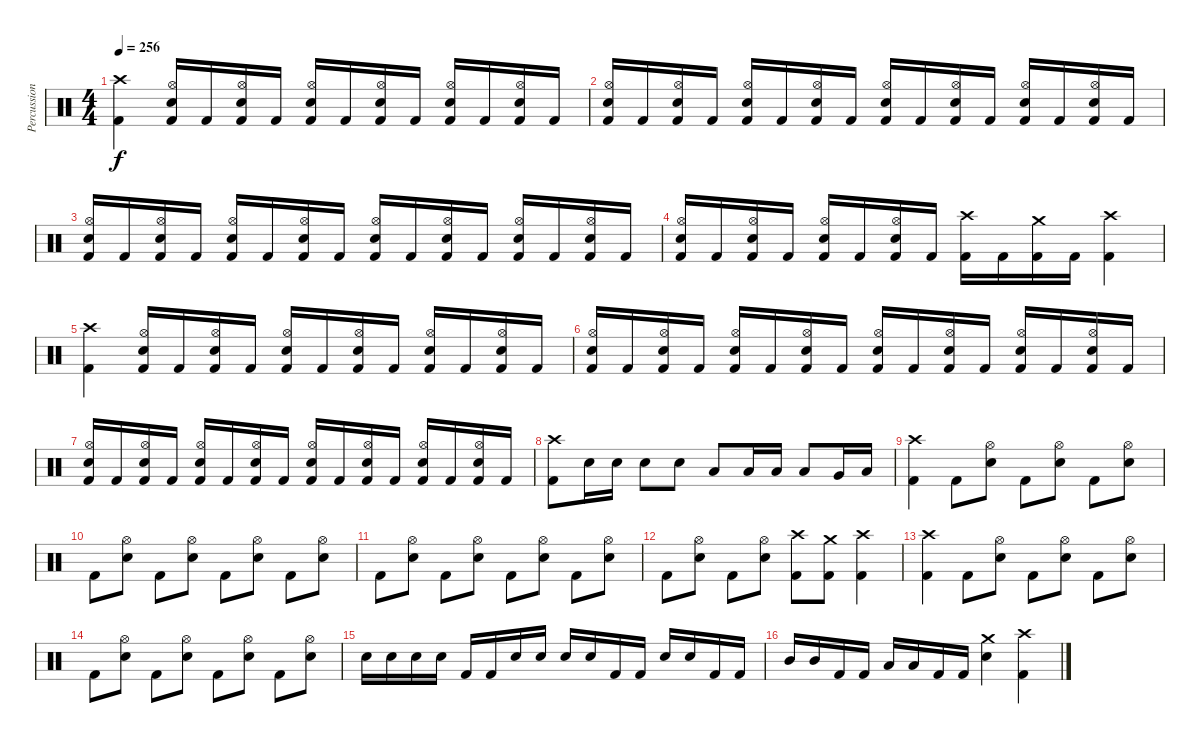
\track ("Percussion" "Percussion") {instrument percussion}
\staff {score}
\articulation defaults
\ts (4 4)
\tempo 256
\clef neutral
\ks c
("Crash high (hit)" "Kick (hit) 2").4{dy f volume 16 balance 8} ("Hi-Hat (open)" "Snare (hit) 2" "Kick (hit) 2").16 "Kick (hit) 2".16 ("Hi-Hat (open)" "Snare (hit) 2" "Kick (hit) 2").16 "Kick (hit) 2".16 ("Hi-Hat (open)" "Snare (hit) 2" "Kick (hit) 2").16 "Kick (hit) 2".16 ("Hi-Hat (open)" "Snare (hit) 2" "Kick (hit) 2").16 "Kick (hit) 2".16 ("Hi-Hat (open)" "Snare (hit) 2" "Kick (hit) 2").16 "Kick (hit) 2".16 ("Hi-Hat (open)" "Snare (hit) 2" "Kick (hit) 2").16 "Kick (hit) 2".16 |
("Hi-Hat (open)" "Snare (hit) 2" "Kick (hit) 2").16 "Kick (hit) 2".16 ("Hi-Hat (open)" "Snare (hit) 2" "Kick (hit) 2").16 "Kick (hit) 2".16 ("Hi-Hat (open)" "Snare (hit) 2" "Kick (hit) 2").16 "Kick (hit) 2".16 ("Hi-Hat (open)" "Snare (hit) 2" "Kick (hit) 2").16 "Kick (hit) 2".16 ("Hi-Hat (open)" "Snare (hit) 2" "Kick (hit) 2").16 "Kick (hit) 2".16 ("Hi-Hat (open)" "Snare (hit) 2" "Kick (hit) 2").16 "Kick (hit) 2".16 ("Hi-Hat (open)" "Snare (hit) 2" "Kick (hit) 2").16 "Kick (hit) 2".16 ("Hi-Hat (open)" "Snare (hit) 2" "Kick (hit) 2").16 "Kick (hit) 2".16 |
("Hi-Hat (open)" "Snare (hit) 2" "Kick (hit) 2").16 "Kick (hit) 2".16 ("Hi-Hat (open)" "Snare (hit) 2" "Kick (hit) 2").16 "Kick (hit) 2".16 ("Hi-Hat (open)" "Snare (hit) 2" "Kick (hit) 2").16 "Kick (hit) 2".16 ("Hi-Hat (open)" "Snare (hit) 2" "Kick (hit) 2").16 "Kick (hit) 2".16 ("Hi-Hat (open)" "Snare (hit) 2" "Kick (hit) 2").16 "Kick (hit) 2".16 ("Hi-Hat (open)" "Snare (hit) 2" "Kick (hit) 2").16 "Kick (hit) 2".16 ("Hi-Hat (open)" "Snare (hit) 2" "Kick (hit) 2").16 "Kick (hit) 2".16 ("Hi-Hat (open)" "Snare (hit) 2" "Kick (hit) 2").16 "Kick (hit) 2".16 |
("Hi-Hat (open)" "Snare (hit) 2" "Kick (hit) 2").16 "Kick (hit) 2".16 ("Hi-Hat (open)" "Snare (hit) 2" "Kick (hit) 2").16 "Kick (hit) 2".16 ("Hi-Hat (open)" "Snare (hit) 2" "Kick (hit) 2").16 "Kick (hit) 2".16 ("Hi-Hat (open)" "Snare (hit) 2" "Kick (hit) 2").16 "Kick (hit) 2".16 ("Crash high (hit)" "Kick (hit) 2").16 "Kick (hit) 2".16 ("Crash medium (hit)" "Kick (hit) 2").16 "Kick (hit) 2".16 ("Crash high (hit)" "Kick (hit) 2").4 |
("Crash high (hit)" "Kick (hit) 2").4{volume 16} ("Hi-Hat (open)" "Snare (hit) 2" "Kick (hit) 2").16 "Kick (hit) 2".16 ("Hi-Hat (open)" "Snare (hit) 2" "Kick (hit) 2").16 "Kick (hit) 2".16 ("Hi-Hat (open)" "Snare (hit) 2" "Kick (hit) 2").16 "Kick (hit) 2".16 ("Hi-Hat (open)" "Snare (hit) 2" "Kick (hit) 2").16 "Kick (hit) 2".16 ("Hi-Hat (open)" "Snare (hit) 2" "Kick (hit) 2").16 "Kick (hit) 2".16 ("Hi-Hat (open)" "Snare (hit) 2" "Kick (hit) 2").16 "Kick (hit) 2".16 |
("Hi-Hat (open)" "Snare (hit) 2" "Kick (hit) 2").16 "Kick (hit) 2".16 ("Hi-Hat (open)" "Snare (hit) 2" "Kick (hit) 2").16 "Kick (hit) 2".16 ("Hi-Hat (open)" "Snare (hit) 2" "Kick (hit) 2").16 "Kick (hit) 2".16 ("Hi-Hat (open)" "Snare (hit) 2" "Kick (hit) 2").16 "Kick (hit) 2".16 ("Hi-Hat (open)" "Snare (hit) 2" "Kick (hit) 2").16 "Kick (hit) 2".16 ("Hi-Hat (open)" "Snare (hit) 2" "Kick (hit) 2").16 "Kick (hit) 2".16 ("Hi-Hat (open)" "Snare (hit) 2" "Kick (hit) 2").16 "Kick (hit) 2".16 ("Hi-Hat (open)" "Snare (hit) 2" "Kick (hit) 2").16 "Kick (hit) 2".16 |
("Hi-Hat (open)" "Snare (hit) 2" "Kick (hit) 2").16{volume 16 balance 8} "Kick (hit) 2".16 ("Hi-Hat (open)" "Snare (hit) 2" "Kick (hit) 2").16 "Kick (hit) 2".16 ("Hi-Hat (open)" "Snare (hit) 2" "Kick (hit) 2").16 "Kick (hit) 2".16 ("Hi-Hat (open)" "Snare (hit) 2" "Kick (hit) 2").16 "Kick (hit) 2".16 ("Hi-Hat (open)" "Snare (hit) 2" "Kick (hit) 2").16 "Kick (hit) 2".16 ("Hi-Hat (open)" "Snare (hit) 2" "Kick (hit) 2").16 "Kick (hit) 2".16 ("Hi-Hat (open)" "Snare (hit) 2" "Kick (hit) 2").16 "Kick (hit) 2".16 ("Hi-Hat (open)" "Snare (hit) 2" "Kick (hit) 2").16 "Kick (hit) 2".16 |
("Crash high (hit)" "Kick (hit) 2").8 "Snare (hit) 2".16 "Snare (hit) 2".16 "Snare (hit) 2".8 "Snare (hit) 2".8 "Low Tom (hit)".8 "Low Tom (hit)".16 "Low Tom (hit)".16 "Low Tom (hit)".8 "Very Low Tom (hit)".16 "Low Floor Tom (hit)".16 |
("Crash high (hit)" "Kick (hit) 2").4 "Kick (hit) 2".8 ("Hi-Hat (open)" "Snare (hit) 2").8 "Kick (hit) 2".8 ("Hi-Hat (open)" "Snare (hit) 2").8 "Kick (hit) 2".8 ("Hi-Hat (open)" "Snare (hit) 2").8 |
"Kick (hit) 2".8 ("Hi-Hat (open)" "Snare (hit) 2").8 "Kick (hit) 2".8 ("Hi-Hat (open)" "Snare (hit) 2").8 "Kick (hit) 2".8 ("Hi-Hat (open)" "Snare (hit) 2").8 "Kick (hit) 2".8 ("Hi-Hat (open)" "Snare (hit) 2").8 |
"Kick (hit) 2".8 ("Hi-Hat (open)" "Snare (hit) 2").8 "Kick (hit) 2".8 ("Hi-Hat (open)" "Snare (hit) 2").8 "Kick (hit) 2".8 ("Hi-Hat (open)" "Snare (hit) 2").8 "Kick (hit) 2".8 ("Hi-Hat (open)" "Snare (hit) 2").8 |
"Kick (hit) 2".8 ("Hi-Hat (open)" "Snare (hit) 2").8 "Kick (hit) 2".8 ("Hi-Hat (open)" "Snare (hit) 2").8 ("Crash high (hit)" "Kick (hit) 2").8 ("Crash medium (hit)" "Kick (hit) 2").8 ("Crash high (hit)" "Kick (hit) 2").4 |
("Crash high (hit)" "Kick (hit) 2").4{volume 16 balance 8} "Kick (hit) 2".8 ("Hi-Hat (open)" "Snare (hit) 2").8 "Kick (hit) 2".8 ("Hi-Hat (open)" "Snare (hit) 2").8 "Kick (hit) 2".8 ("Hi-Hat (open)" "Snare (hit) 2").8 |
"Kick (hit) 2".8 ("Hi-Hat (open)" "Snare (hit) 2").8 "Kick (hit) 2".8 ("Hi-Hat (open)" "Snare (hit) 2").8 "Kick (hit) 2".8 ("Hi-Hat (open)" "Snare (hit) 2").8 "Kick (hit) 2".8 ("Hi-Hat (open)" "Snare (hit) 2").8 |
"Snare (hit) 2".16 "Snare (hit) 2".16 "Snare (hit) 2".16 "Snare (hit) 2".16 "Kick (hit) 2".16 "Kick (hit) 2".16 "Snare (hit) 2".16 "Snare (hit) 2".16 "Snare (hit) 2".16 "Snare (hit) 2".16 "Kick (hit) 2".16 "Kick (hit) 2".16 "Snare (hit) 2".16 "Snare (hit) 2".16 "Kick (hit) 2".16 "Kick (hit) 2".16 |
"Mid Tom (hit)".16 "Mid Tom (hit)".16 "Kick (hit) 2".16 "Kick (hit) 2".16 "Low Tom (hit)".16 "Low Tom (hit)".16 "Kick (hit) 2".16 "Kick (hit) 2".16 ("Crash medium (hit)" "Snare (hit) 2").4 ("Crash high (hit)" "Kick (hit) 2").4
